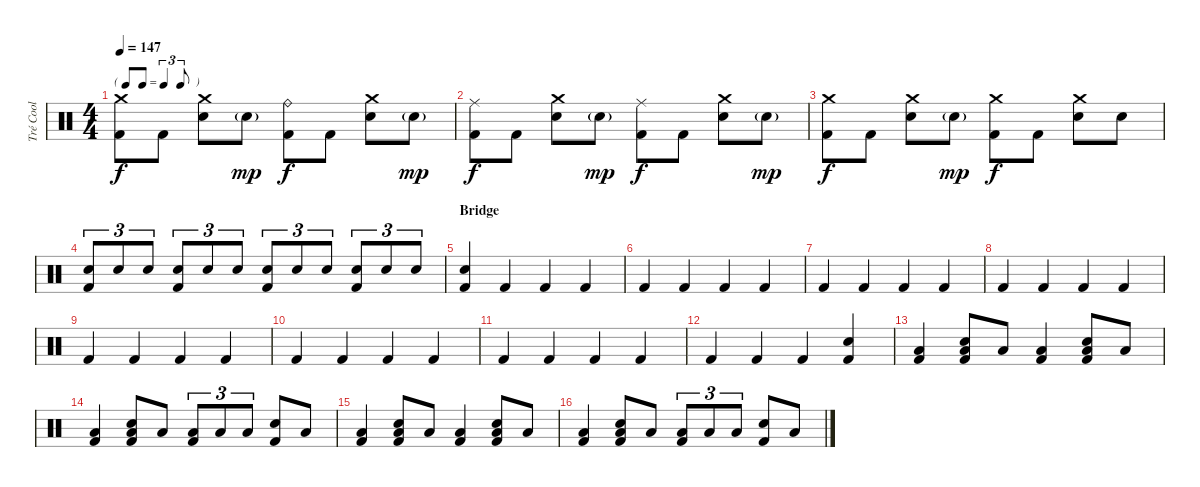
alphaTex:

\track ("Tré Cool" "Tré Cool") {instrument percussion}
\staff {score}
\articulation defaults
\ts (4 4)
\tf triplet8th
\tempo 147
\clef neutral
\ks c
("Crash medium (hit)" "Kick (hit) 2").8{dy f} "Kick (hit) 2".8 ("Crash medium (hit)" "Snare (hit) 2").8 "Snare (hit) 2"{g}.8{dy mp} ("Ride (bell)" "Kick (hit) 2").8{dy f} "Kick (hit) 2".8 ("Crash medium (hit)" "Snare (hit) 2").8 "Snare (hit) 2"{g}.8{dy mp} |
("Ride (middle)" "Kick (hit) 2").8{dy f} "Kick (hit) 2".8 ("Crash medium (hit)" "Snare (hit) 2").8 "Snare (hit) 2"{g}.8{dy mp} ("Ride (middle)" "Kick (hit) 2").8{dy f} "Kick (hit) 2".8 ("Crash medium (hit)" "Snare (hit) 2").8 "Snare (hit) 2"{g}.8{dy mp} |
("Crash medium (hit)" "Kick (hit) 2").8{dy f} "Kick (hit) 2".8 ("Crash medium (hit)" "Snare (hit) 2").8 "Snare (hit) 2"{g}.8{dy mp} ("Crash medium (hit)" "Kick (hit) 2").8{dy f} "Kick (hit) 2".8 ("Crash medium (hit)" "Snare (hit) 2").8 "Snare (hit) 2".8 |
("Snare (hit) 2" "Kick (hit) 2").8{tu (3 2)} "Snare (hit) 2".8{tu (3 2)} "Snare (hit) 2".8{tu (3 2)} ("Snare (hit) 2" "Kick (hit) 2").8{tu (3 2)} "Snare (hit) 2".8{tu (3 2)} "Snare (hit) 2".8{tu (3 2)} ("Snare (hit) 2" "Kick (hit) 2").8{tu (3 2)} "Snare (hit) 2".8{tu (3 2)} "Snare (hit) 2".8{tu (3 2)} ("Snare (hit) 2" "Kick (hit) 2").8{tu (3 2)} "Snare (hit) 2".8{tu (3 2)} "Snare (hit) 2".8{tu (3 2)} |
\section ("" "Bridge")
("Snare (hit) 2" "Kick (hit) 2").4 "Kick (hit) 2".4 "Kick (hit) 2".4 "Kick (hit) 2".4 |
"Kick (hit) 2".4 "Kick (hit) 2".4 "Kick (hit) 2".4 "Kick (hit) 2".4 |
"Kick (hit) 2".4 "Kick (hit) 2".4 "Kick (hit) 2".4 "Kick (hit) 2".4 |
"Kick (hit) 2".4 "Kick (hit) 2".4 "Kick (hit) 2".4 "Kick (hit) 2".4 |
"Kick (hit) 2".4 "Kick (hit) 2".4 "Kick (hit) 2".4 "Kick (hit) 2".4 |
"Kick (hit) 2".4 "Kick (hit) 2".4 "Kick (hit) 2".4 "Kick (hit) 2".4 |
"Kick (hit) 2".4 "Kick (hit) 2".4 "Kick (hit) 2".4 "Kick (hit) 2".4 |
"Kick (hit) 2".4 "Kick (hit) 2".4 "Kick (hit) 2".4 ("Snare (hit) 2" "Kick (hit) 2").4 |
("Low Tom (hit)" "Kick (hit) 2").4 ("Snare (hit) 2" "Low Tom (hit)" "Kick (hit) 2").8 "Low Tom (hit)".8 ("Low Tom (hit)" "Kick (hit) 2").4 ("Snare (hit) 2" "Low Tom (hit)" "Kick (hit) 2").8 "Low Tom (hit)".8 |
("Low Tom (hit)" "Kick (hit) 2").4 ("Snare (hit) 2" "Low Tom (hit)" "Kick (hit) 2").8 "Low Tom (hit)".8 ("Low Tom (hit)" "Kick (hit) 2").8{tu (3 2)} "Low Tom (hit)".8{tu (3 2)} "Low Tom (hit)".8{tu (3 2)} ("Snare (hit) 2" "Kick (hit) 2").8 "Low Tom (hit)".8 |
("Low Tom (hit)" "Kick (hit) 2").4 ("Snare (hit) 2" "Low Tom (hit)" "Kick (hit) 2").8 "Low Tom (hit)".8 ("Low Tom (hit)" "Kick (hit) 2").4 ("Snare (hit) 2" "Low Tom (hit)" "Kick (hit) 2").8 "Low Tom (hit)".8 |
("Low Tom (hit)" "Kick (hit) 2").4 ("Snare (hit) 2" "Low Tom (hit)" "Kick (hit) 2").8 "Low Tom (hit)".8 ("Low Tom (hit)" "Kick (hit) 2").8{tu (3 2)} "Low Tom (hit)".8{tu (3 2)} "Low Tom (hit)".8{tu (3 2)} ("Snare (hit) 2" "Kick (hit) 2").8 "Low Tom (hit)".8
